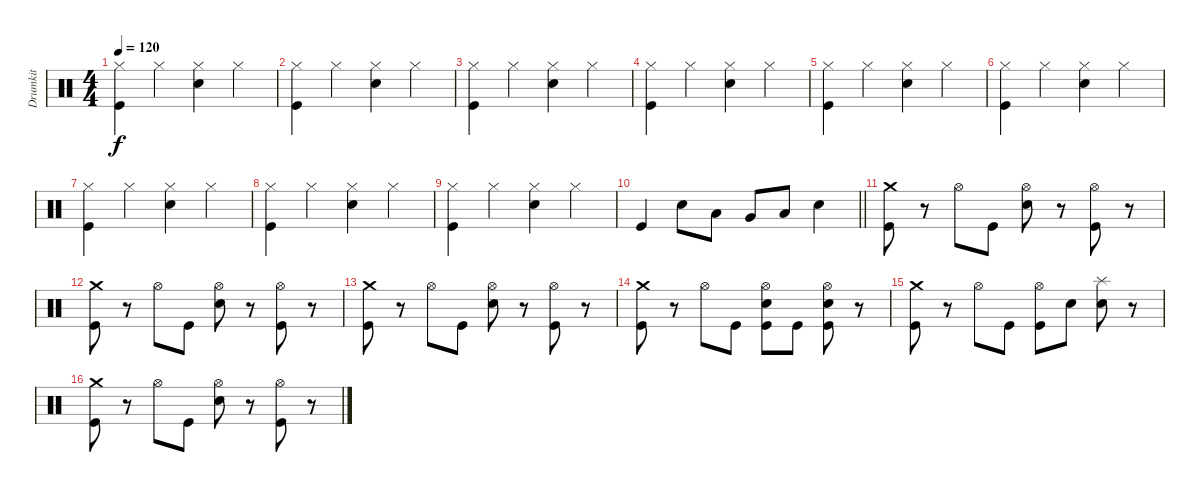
\track ("Drumkit" "Drumkit") {instrument percussion}
\staff {score}
\articulation defaults
\ts (4 4)
\tempo 120
\clef neutral
\ks c
("Kick (hit)" "Hi-Hat (closed)").4{dy f} "Hi-Hat (closed)".4 ("Snare (hit) 2" "Hi-Hat (closed)").4 "Hi-Hat (closed)".4 |
("Kick (hit)" "Hi-Hat (closed)").4 "Hi-Hat (closed)".4 ("Snare (hit) 2" "Hi-Hat (closed)").4 "Hi-Hat (closed)".4 |
("Kick (hit)" "Hi-Hat (closed)").4 "Hi-Hat (closed)".4 ("Snare (hit) 2" "Hi-Hat (closed)").4 "Hi-Hat (closed)".4 |
("Kick (hit)" "Hi-Hat (closed)").4 "Hi-Hat (closed)".4 ("Snare (hit) 2" "Hi-Hat (closed)").4 "Hi-Hat (closed)".4 |
("Kick (hit)" "Hi-Hat (closed)").4 "Hi-Hat (closed)".4 ("Snare (hit) 2" "Hi-Hat (closed)").4 "Hi-Hat (closed)".4 |
("Kick (hit)" "Hi-Hat (closed)").4 "Hi-Hat (closed)".4 ("Snare (hit) 2" "Hi-Hat (closed)").4 "Hi-Hat (closed)".4 |
("Kick (hit)" "Hi-Hat (closed)").4 "Hi-Hat (closed)".4 ("Snare (hit) 2" "Hi-Hat (closed)").4 "Hi-Hat (closed)".4 |
("Kick (hit)" "Hi-Hat (closed)").4 "Hi-Hat (closed)".4 ("Snare (hit) 2" "Hi-Hat (closed)").4 "Hi-Hat (closed)".4 |
("Kick (hit)" "Hi-Hat (closed)").4 "Hi-Hat (closed)".4 ("Snare (hit) 2" "Hi-Hat (closed)").4 "Hi-Hat (closed)".4 |
\barLineRight lightlight "Kick (hit)".4 "Snare (hit) 2".8 "Low Tom (hit)".8 "Very Low Tom (hit)".8 "Low Floor Tom (hit)".8 "Snare (hit) 2".4
|
("Crash medium (hit)" "Kick (hit)").8 r.8 "Hi-Hat (open)".8 "Kick (hit)".8 ("Hi-Hat (open)" "Snare (hit) 2").8 r.8 ("Hi-Hat (open)" "Kick (hit)").8 r.8 |
("Crash medium (hit)" "Kick (hit)").8 r.8 "Hi-Hat (open)".8 "Kick (hit)".8 ("Hi-Hat (open)" "Snare (hit) 2").8 r.8 ("Hi-Hat (open)" "Kick (hit)").8 r.8 |
("Crash medium (hit)" "Kick (hit)").8 r.8 "Hi-Hat (open)".8 "Kick (hit)".8 ("Hi-Hat (open)" "Snare (hit) 2").8 r.8 ("Hi-Hat (open)" "Kick (hit)").8 r.8 |
("Crash medium (hit)" "Kick (hit)").8 r.8 "Hi-Hat (open)".8 "Kick (hit)".8 ("Hi-Hat (open)" "Snare (hit) 2" "Kick (hit)").8 "Kick (hit)".8 ("Hi-Hat (open)" "Snare (hit) 2" "Kick (hit)").8 r.8 |
("Crash medium (hit)" "Kick (hit)").8 r.8 "Hi-Hat (open)".8 "Kick (hit)".8 ("Hi-Hat (open)" "Kick (hit)").8 "Snare (hit) 2".8 ("Snare (hit) 2" "Splash (hit)").8 r.8 |
("Crash medium (hit)" "Kick (hit)").8 r.8 "Hi-Hat (open)".8 "Kick (hit)".8 ("Hi-Hat (open)" "Snare (hit) 2").8 r.8 ("Hi-Hat (open)" "Kick (hit)").8 r.8
